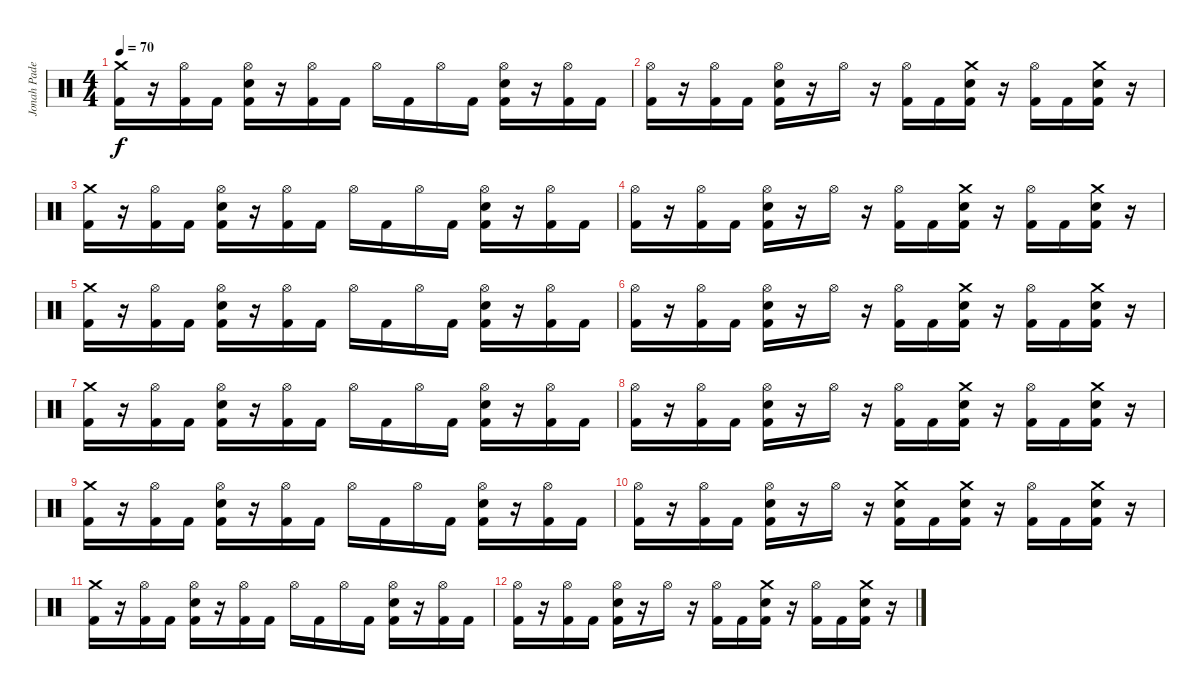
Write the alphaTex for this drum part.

\track ("Jonah Padella" "Jonah Pade") {instrument percussion}
\staff {score}
\articulation defaults
\ts (4 4)
\tempo 70
\clef neutral
\ks c
("Crash medium (hit)" "Kick (hit) 2").16{dy f} r.16 ("Hi-Hat (open)" "Kick (hit) 2").16 "Kick (hit) 2".16 ("Hi-Hat (open)" "Snare (hit) 2" "Kick (hit) 2").16 r.16 ("Hi-Hat (open)" "Kick (hit) 2").16 "Kick (hit) 2".16 "Hi-Hat (open)".16 "Kick (hit) 2".16 "Hi-Hat (open)".16 "Kick (hit) 2".16 ("Hi-Hat (open)" "Snare (hit) 2" "Kick (hit) 2").16 r.16 ("Hi-Hat (open)" "Kick (hit) 2").16 "Kick (hit) 2".16 |
("Hi-Hat (open)" "Kick (hit) 2").16 r.16 ("Hi-Hat (open)" "Kick (hit) 2").16 "Kick (hit) 2".16 ("Hi-Hat (open)" "Snare (hit) 2" "Kick (hit) 2").16 r.16 "Hi-Hat (open)".16 r.16 ("Hi-Hat (open)" "Kick (hit) 2").16 "Kick (hit) 2".16 ("Crash medium (hit)" "Snare (hit) 2" "Kick (hit) 2").16 r.16 ("Hi-Hat (open)" "Kick (hit) 2").16 "Kick (hit) 2".16 ("Crash medium (hit)" "Snare (hit) 2" "Kick (hit) 2").16 r.16 |
("Crash medium (hit)" "Kick (hit) 2").16 r.16 ("Hi-Hat (open)" "Kick (hit) 2").16 "Kick (hit) 2".16 ("Hi-Hat (open)" "Snare (hit) 2" "Kick (hit) 2").16 r.16 ("Hi-Hat (open)" "Kick (hit) 2").16 "Kick (hit) 2".16 "Hi-Hat (open)".16 "Kick (hit) 2".16 "Hi-Hat (open)".16 "Kick (hit) 2".16 ("Hi-Hat (open)" "Snare (hit) 2" "Kick (hit) 2").16 r.16 ("Hi-Hat (open)" "Kick (hit) 2").16 "Kick (hit) 2".16 |
("Hi-Hat (open)" "Kick (hit) 2").16 r.16 ("Hi-Hat (open)" "Kick (hit) 2").16 "Kick (hit) 2".16 ("Hi-Hat (open)" "Snare (hit) 2" "Kick (hit) 2").16 r.16 "Hi-Hat (open)".16 r.16 ("Hi-Hat (open)" "Kick (hit) 2").16 "Kick (hit) 2".16 ("Crash medium (hit)" "Snare (hit) 2" "Kick (hit) 2").16 r.16 ("Hi-Hat (open)" "Kick (hit) 2").16 "Kick (hit) 2".16 ("Crash medium (hit)" "Snare (hit) 2" "Kick (hit) 2").16 r.16 |
("Crash medium (hit)" "Kick (hit) 2").16 r.16 ("Hi-Hat (open)" "Kick (hit) 2").16 "Kick (hit) 2".16 ("Hi-Hat (open)" "Snare (hit) 2" "Kick (hit) 2").16 r.16 ("Hi-Hat (open)" "Kick (hit) 2").16 "Kick (hit) 2".16 "Hi-Hat (open)".16 "Kick (hit) 2".16 "Hi-Hat (open)".16 "Kick (hit) 2".16 ("Hi-Hat (open)" "Snare (hit) 2" "Kick (hit) 2").16 r.16 ("Hi-Hat (open)" "Kick (hit) 2").16 "Kick (hit) 2".16 |
("Hi-Hat (open)" "Kick (hit) 2").16 r.16 ("Hi-Hat (open)" "Kick (hit) 2").16 "Kick (hit) 2".16 ("Hi-Hat (open)" "Snare (hit) 2" "Kick (hit) 2").16 r.16 "Hi-Hat (open)".16 r.16 ("Hi-Hat (open)" "Kick (hit) 2").16 "Kick (hit) 2".16 ("Crash medium (hit)" "Snare (hit) 2" "Kick (hit) 2").16 r.16 ("Hi-Hat (open)" "Kick (hit) 2").16 "Kick (hit) 2".16 ("Crash medium (hit)" "Snare (hit) 2" "Kick (hit) 2").16 r.16 |
("Crash medium (hit)" "Kick (hit) 2").16 r.16 ("Hi-Hat (open)" "Kick (hit) 2").16 "Kick (hit) 2".16 ("Hi-Hat (open)" "Snare (hit) 2" "Kick (hit) 2").16 r.16 ("Hi-Hat (open)" "Kick (hit) 2").16 "Kick (hit) 2".16 "Hi-Hat (open)".16 "Kick (hit) 2".16 "Hi-Hat (open)".16 "Kick (hit) 2".16 ("Hi-Hat (open)" "Snare (hit) 2" "Kick (hit) 2").16 r.16 ("Hi-Hat (open)" "Kick (hit) 2").16 "Kick (hit) 2".16 |
("Hi-Hat (open)" "Kick (hit) 2").16 r.16 ("Hi-Hat (open)" "Kick (hit) 2").16 "Kick (hit) 2".16 ("Hi-Hat (open)" "Snare (hit) 2" "Kick (hit) 2").16 r.16 "Hi-Hat (open)".16 r.16 ("Hi-Hat (open)" "Kick (hit) 2").16 "Kick (hit) 2".16 ("Crash medium (hit)" "Snare (hit) 2" "Kick (hit) 2").16 r.16 ("Hi-Hat (open)" "Kick (hit) 2").16 "Kick (hit) 2".16 ("Crash medium (hit)" "Snare (hit) 2" "Kick (hit) 2").16 r.16 |
("Crash medium (hit)" "Kick (hit) 2").16 r.16 ("Hi-Hat (open)" "Kick (hit) 2").16 "Kick (hit) 2".16 ("Hi-Hat (open)" "Snare (hit) 2" "Kick (hit) 2").16 r.16 ("Hi-Hat (open)" "Kick (hit) 2").16 "Kick (hit) 2".16 "Hi-Hat (open)".16 "Kick (hit) 2".16 "Hi-Hat (open)".16 "Kick (hit) 2".16 ("Hi-Hat (open)" "Snare (hit) 2" "Kick (hit) 2").16 r.16 ("Hi-Hat (open)" "Kick (hit) 2").16 "Kick (hit) 2".16 |
("Hi-Hat (open)" "Kick (hit) 2").16 r.16 ("Hi-Hat (open)" "Kick (hit) 2").16 "Kick (hit) 2".16 ("Hi-Hat (open)" "Snare (hit) 2" "Kick (hit) 2").16 r.16 "Hi-Hat (open)".16 r.16 ("Crash medium (hit)" "Snare (hit) 2" "Kick (hit) 2").16 "Kick (hit) 2".16 ("Crash medium (hit)" "Snare (hit) 2" "Kick (hit) 2").16 r.16 ("Hi-Hat (open)" "Kick (hit) 2").16 "Kick (hit) 2".16 ("Crash medium (hit)" "Snare (hit) 2" "Kick (hit) 2").16 r.16 |
("Crash medium (hit)" "Kick (hit) 2").16 r.16 ("Hi-Hat (open)" "Kick (hit) 2").16 "Kick (hit) 2".16 ("Hi-Hat (open)" "Snare (hit) 2" "Kick (hit) 2").16 r.16 ("Hi-Hat (open)" "Kick (hit) 2").16 "Kick (hit) 2".16 "Hi-Hat (open)".16 "Kick (hit) 2".16 "Hi-Hat (open)".16 "Kick (hit) 2".16 ("Hi-Hat (open)" "Snare (hit) 2" "Kick (hit) 2").16 r.16 ("Hi-Hat (open)" "Kick (hit) 2").16 "Kick (hit) 2".16 |
("Hi-Hat (open)" "Kick (hit) 2").16 r.16 ("Hi-Hat (open)" "Kick (hit) 2").16 "Kick (hit) 2".16 ("Hi-Hat (open)" "Snare (hit) 2" "Kick (hit) 2").16 r.16 "Hi-Hat (open)".16 r.16 ("Hi-Hat (open)" "Kick (hit) 2").16 "Kick (hit) 2".16 ("Crash medium (hit)" "Snare (hit) 2" "Kick (hit) 2").16 r.16 ("Hi-Hat (open)" "Kick (hit) 2").16 "Kick (hit) 2".16 ("Crash medium (hit)" "Snare (hit) 2" "Kick (hit) 2").16 r.16
